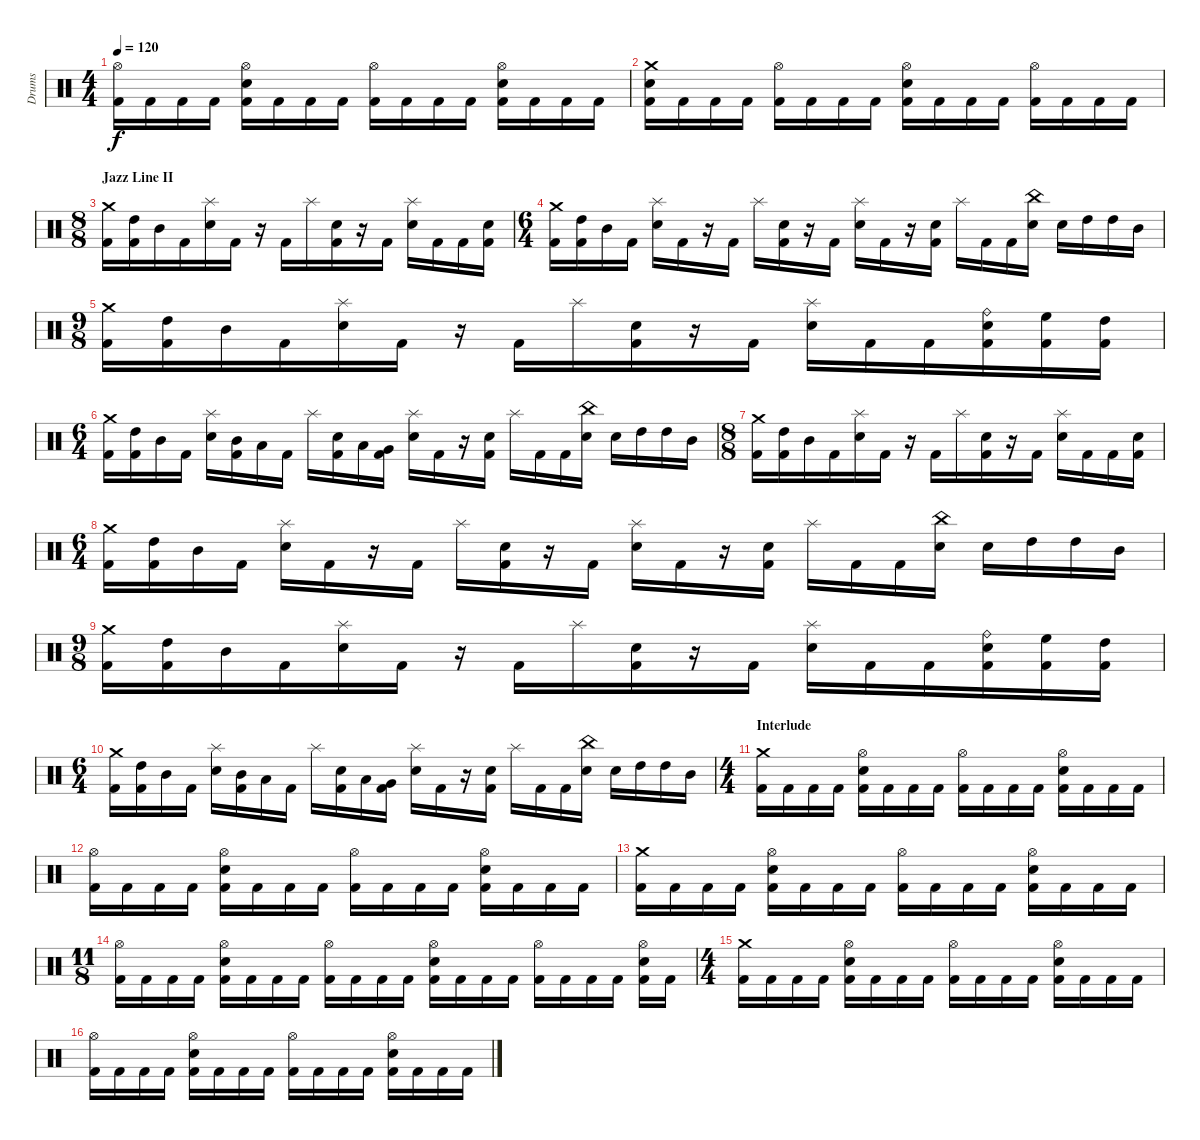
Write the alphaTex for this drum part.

\track ("Drums" "Drums") {instrument percussion}
\staff {score}
\articulation defaults
\ts (4 4)
\tempo 120
\clef neutral
\ks c
("Hi-Hat (open)" "Kick (hit) 2").16{dy f} "Kick (hit) 2".16 "Kick (hit) 2".16 "Kick (hit) 2".16 ("Hi-Hat (open)" "Electric Snare (hit)" "Kick (hit) 2").16 "Kick (hit) 2".16 "Kick (hit) 2".16 "Kick (hit) 2".16 ("Hi-Hat (open)" "Kick (hit) 2").16 "Kick (hit) 2".16 "Kick (hit) 2".16 "Kick (hit) 2".16 ("Hi-Hat (open)" "Electric Snare (hit)" "Kick (hit) 2").16 "Kick (hit) 2".16 "Kick (hit) 2".16 "Kick (hit) 2".16 |
("Crash medium (hit)" "Electric Snare (hit)" "Kick (hit) 2").16 "Kick (hit) 2".16 "Kick (hit) 2".16 "Kick (hit) 2".16 ("Hi-Hat (open)" "Kick (hit) 2").16 "Kick (hit) 2".16 "Kick (hit) 2".16 "Kick (hit) 2".16 ("Hi-Hat (open)" "Electric Snare (hit)" "Kick (hit) 2").16 "Kick (hit) 2".16 "Kick (hit) 2".16 "Kick (hit) 2".16 ("Hi-Hat (open)" "Kick (hit) 2").16 "Kick (hit) 2".16 "Kick (hit) 2".16 "Kick (hit) 2".16 |
\ts (8 8)
\section ("" "Jazz Line II")
("Crash medium (hit)" "Kick (hit) 2").16 ("High Tom (hit)" "Kick (hit) 2").16 "Mid Tom (hit)".16 "Kick (hit) 2".16 ("Splash (hit)" "Electric Snare (hit)").16 "Kick (hit) 2".16 r.16 "Kick (hit) 2".16 "Splash (hit)".16 ("Electric Snare (hit)" "Kick (hit) 2").16 r.16 "Kick (hit) 2".16 ("Splash (hit)" "Electric Snare (hit)").16 "Kick (hit) 2".16 "Kick (hit) 2".16 ("Electric Snare (hit)" "Kick (hit) 2").16 |
\ts (6 4)
("Crash medium (hit)" "Kick (hit) 2").16 ("High Tom (hit)" "Kick (hit) 2").16 "Mid Tom (hit)".16 "Kick (hit) 2".16 ("Splash (hit)" "Electric Snare (hit)").16 "Kick (hit) 2".16 r.16 "Kick (hit) 2".16 "Splash (hit)".16 ("Electric Snare (hit)" "Kick (hit) 2").16 r.16 "Kick (hit) 2".16 ("Splash (hit)" "Electric Snare (hit)").16 "Kick (hit) 2".16 r.16 ("Electric Snare (hit)" "Kick (hit) 2").16 "Splash (hit)".16 "Kick (hit) 2".16 "Kick (hit) 2".16 ("China (hit)" "Electric Snare (hit)").16 "Electric Snare (hit)".16 "High Tom (hit)".16 "High Tom (hit)".16 "Mid Tom (hit)".16 |
\ts (9 8)
("Crash medium (hit)" "Kick (hit) 2").16 ("High Tom (hit)" "Kick (hit) 2").16 "Mid Tom (hit)".16 "Kick (hit) 2".16 ("Splash (hit)" "Electric Snare (hit)").16 "Kick (hit) 2".16 r.16 "Kick (hit) 2".16 "Splash (hit)".16 ("Electric Snare (hit)" "Kick (hit) 2").16 r.16 "Kick (hit) 2".16 ("Splash (hit)" "Electric Snare (hit)").16 "Kick (hit) 2".16 "Kick (hit) 2".16 ("Ride (bell)" "Electric Snare (hit)" "Kick (hit) 2").16 ("High Floor Tom (hit)" "Kick (hit) 2").16 ("High Tom (hit)" "Kick (hit) 2").16 |
\ts (6 4)
("Crash medium (hit)" "Kick (hit) 2").16 ("High Tom (hit)" "Kick (hit) 2").16 "Mid Tom (hit)".16 "Kick (hit) 2".16 ("Splash (hit)" "Electric Snare (hit)").16 ("Mid Tom (hit)" "Kick (hit) 2").16 "Low Tom (hit)".16 "Kick (hit) 2".16 "Splash (hit)".16 ("Electric Snare (hit)" "Kick (hit) 2").16 "Low Tom (hit)".16 ("Very Low Tom (hit)" "Kick (hit) 2").16 ("Splash (hit)" "Electric Snare (hit)").16 "Kick (hit) 2".16 r.16 ("Electric Snare (hit)" "Kick (hit) 2").16 "Splash (hit)".16 "Kick (hit) 2".16 "Kick (hit) 2".16 ("China (hit)" "Electric Snare (hit)").16 "Electric Snare (hit)".16 "High Tom (hit)".16 "High Tom (hit)".16 "Mid Tom (hit)".16 |
\ts (8 8)
("Crash medium (hit)" "Kick (hit) 2").16 ("High Tom (hit)" "Kick (hit) 2").16 "Mid Tom (hit)".16 "Kick (hit) 2".16 ("Splash (hit)" "Electric Snare (hit)").16 "Kick (hit) 2".16 r.16 "Kick (hit) 2".16 "Splash (hit)".16 ("Electric Snare (hit)" "Kick (hit) 2").16 r.16 "Kick (hit) 2".16 ("Splash (hit)" "Electric Snare (hit)").16 "Kick (hit) 2".16 "Kick (hit) 2".16 ("Electric Snare (hit)" "Kick (hit) 2").16 |
\ts (6 4)
("Crash medium (hit)" "Kick (hit) 2").16 ("High Tom (hit)" "Kick (hit) 2").16 "Mid Tom (hit)".16 "Kick (hit) 2".16 ("Splash (hit)" "Electric Snare (hit)").16 "Kick (hit) 2".16 r.16 "Kick (hit) 2".16 "Splash (hit)".16 ("Electric Snare (hit)" "Kick (hit) 2").16 r.16 "Kick (hit) 2".16 ("Splash (hit)" "Electric Snare (hit)").16 "Kick (hit) 2".16 r.16 ("Electric Snare (hit)" "Kick (hit) 2").16 "Splash (hit)".16 "Kick (hit) 2".16 "Kick (hit) 2".16 ("China (hit)" "Electric Snare (hit)").16 "Electric Snare (hit)".16 "High Tom (hit)".16 "High Tom (hit)".16 "Mid Tom (hit)".16 |
\ts (9 8)
("Crash medium (hit)" "Kick (hit) 2").16 ("High Tom (hit)" "Kick (hit) 2").16 "Mid Tom (hit)".16 "Kick (hit) 2".16 ("Splash (hit)" "Electric Snare (hit)").16 "Kick (hit) 2".16 r.16 "Kick (hit) 2".16 "Splash (hit)".16 ("Electric Snare (hit)" "Kick (hit) 2").16 r.16 "Kick (hit) 2".16 ("Splash (hit)" "Electric Snare (hit)").16 "Kick (hit) 2".16 "Kick (hit) 2".16 ("Ride (bell)" "Electric Snare (hit)" "Kick (hit) 2").16 ("High Floor Tom (hit)" "Kick (hit) 2").16 ("High Tom (hit)" "Kick (hit) 2").16 |
\ts (6 4)
("Crash medium (hit)" "Kick (hit) 2").16 ("High Tom (hit)" "Kick (hit) 2").16 "Mid Tom (hit)".16 "Kick (hit) 2".16 ("Splash (hit)" "Electric Snare (hit)").16 ("Mid Tom (hit)" "Kick (hit) 2").16 "Low Tom (hit)".16 "Kick (hit) 2".16 "Splash (hit)".16 ("Electric Snare (hit)" "Kick (hit) 2").16 "Low Tom (hit)".16 ("Very Low Tom (hit)" "Kick (hit) 2").16 ("Splash (hit)" "Electric Snare (hit)").16 "Kick (hit) 2".16 r.16 ("Electric Snare (hit)" "Kick (hit) 2").16 "Splash (hit)".16 "Kick (hit) 2".16 "Kick (hit) 2".16 ("China (hit)" "Electric Snare (hit)").16 "Electric Snare (hit)".16 "High Tom (hit)".16 "High Tom (hit)".16 "Mid Tom (hit)".16 |
\ts (4 4)
\section ("" "Interlude")
("Crash medium (hit)" "Kick (hit) 2").16 "Kick (hit) 2".16 "Kick (hit) 2".16 "Kick (hit) 2".16 ("Hi-Hat (open)" "Electric Snare (hit)" "Kick (hit) 2").16 "Kick (hit) 2".16 "Kick (hit) 2".16 "Kick (hit) 2".16 ("Hi-Hat (open)" "Kick (hit) 2").16 "Kick (hit) 2".16 "Kick (hit) 2".16 "Kick (hit) 2".16 ("Hi-Hat (open)" "Electric Snare (hit)" "Kick (hit) 2").16 "Kick (hit) 2".16 "Kick (hit) 2".16 "Kick (hit) 2".16 |
("Hi-Hat (open)" "Kick (hit) 2").16 "Kick (hit) 2".16 "Kick (hit) 2".16 "Kick (hit) 2".16 ("Hi-Hat (open)" "Electric Snare (hit)" "Kick (hit) 2").16 "Kick (hit) 2".16 "Kick (hit) 2".16 "Kick (hit) 2".16 ("Hi-Hat (open)" "Kick (hit) 2").16 "Kick (hit) 2".16 "Kick (hit) 2".16 "Kick (hit) 2".16 ("Hi-Hat (open)" "Electric Snare (hit)" "Kick (hit) 2").16 "Kick (hit) 2".16 "Kick (hit) 2".16 "Kick (hit) 2".16 |
("Crash medium (hit)" "Kick (hit) 2").16 "Kick (hit) 2".16 "Kick (hit) 2".16 "Kick (hit) 2".16 ("Hi-Hat (open)" "Electric Snare (hit)" "Kick (hit) 2").16 "Kick (hit) 2".16 "Kick (hit) 2".16 "Kick (hit) 2".16 ("Hi-Hat (open)" "Kick (hit) 2").16 "Kick (hit) 2".16 "Kick (hit) 2".16 "Kick (hit) 2".16 ("Hi-Hat (open)" "Electric Snare (hit)" "Kick (hit) 2").16 "Kick (hit) 2".16 "Kick (hit) 2".16 "Kick (hit) 2".16 |
\ts (11 8)
("Hi-Hat (open)" "Kick (hit) 2").16 "Kick (hit) 2".16 "Kick (hit) 2".16 "Kick (hit) 2".16 ("Hi-Hat (open)" "Electric Snare (hit)" "Kick (hit) 2").16 "Kick (hit) 2".16 "Kick (hit) 2".16 "Kick (hit) 2".16 ("Hi-Hat (open)" "Kick (hit) 2").16 "Kick (hit) 2".16 "Kick (hit) 2".16 "Kick (hit) 2".16 ("Hi-Hat (open)" "Electric Snare (hit)" "Kick (hit) 2").16 "Kick (hit) 2".16 "Kick (hit) 2".16 "Kick (hit) 2".16 ("Hi-Hat (open)" "Kick (hit) 2").16 "Kick (hit) 2".16 "Kick (hit) 2".16 "Kick (hit) 2".16 ("Hi-Hat (open)" "Electric Snare (hit)" "Kick (hit) 2").16 "Kick (hit) 2".16 |
\ts (4 4)
("Crash medium (hit)" "Kick (hit) 2").16 "Kick (hit) 2".16 "Kick (hit) 2".16 "Kick (hit) 2".16 ("Hi-Hat (open)" "Electric Snare (hit)" "Kick (hit) 2").16 "Kick (hit) 2".16 "Kick (hit) 2".16 "Kick (hit) 2".16 ("Hi-Hat (open)" "Kick (hit) 2").16 "Kick (hit) 2".16 "Kick (hit) 2".16 "Kick (hit) 2".16 ("Hi-Hat (open)" "Electric Snare (hit)" "Kick (hit) 2").16 "Kick (hit) 2".16 "Kick (hit) 2".16 "Kick (hit) 2".16 |
("Hi-Hat (open)" "Kick (hit) 2").16 "Kick (hit) 2".16 "Kick (hit) 2".16 "Kick (hit) 2".16 ("Hi-Hat (open)" "Electric Snare (hit)" "Kick (hit) 2").16 "Kick (hit) 2".16 "Kick (hit) 2".16 "Kick (hit) 2".16 ("Hi-Hat (open)" "Kick (hit) 2").16 "Kick (hit) 2".16 "Kick (hit) 2".16 "Kick (hit) 2".16 ("Hi-Hat (open)" "Electric Snare (hit)" "Kick (hit) 2").16 "Kick (hit) 2".16 "Kick (hit) 2".16 "Kick (hit) 2".16
